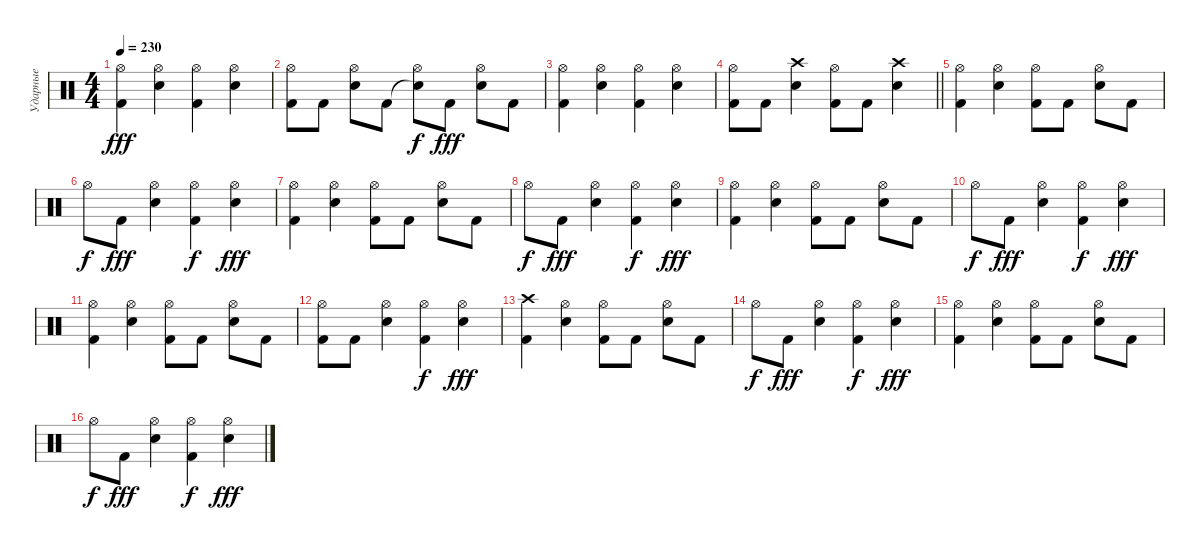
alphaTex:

\track ("Ударные" "Ударные") {instrument percussion}
\staff {score}
\articulation defaults
\ts (4 4)
\tempo 230
\clef neutral
\ks c
("Kick (hit) 2" "Hi-Hat (open)").4{dy fff} ("Snare (hit) 2" "Hi-Hat (open)").4 ("Kick (hit) 2" "Hi-Hat (open)").4 ("Snare (hit) 2" "Hi-Hat (open)").4 |
("Kick (hit) 2" "Hi-Hat (open)").8 "Kick (hit) 2".8 ("Snare (hit) 2" "Hi-Hat (open)").8 "Kick (hit) 2".8 ("Snare (hit)"{t} "Hi-Hat (open)").8{dy f} "Kick (hit) 2".8{dy fff} ("Snare (hit) 2" "Hi-Hat (open)").8 "Kick (hit) 2".8 |
("Kick (hit) 2" "Hi-Hat (open)").4 ("Snare (hit) 2" "Hi-Hat (open)").4 ("Kick (hit) 2" "Hi-Hat (open)").4 ("Snare (hit) 2" "Hi-Hat (open)").4 |
\barLineRight lightlight
("Kick (hit) 2" "Hi-Hat (open)").8 "Kick (hit) 2".8 ("Snare (hit) 2" "Crash high (hit)").4 ("Kick (hit) 2" "Hi-Hat (open)").8 "Kick (hit) 2".8 ("Snare (hit) 2" "Crash high (hit)").4 |
("Kick (hit) 2" "Hi-Hat (open)").4 ("Snare (hit) 2" "Hi-Hat (open)").4 ("Kick (hit) 2" "Hi-Hat (open)").8 "Kick (hit) 2".8 ("Snare (hit) 2" "Hi-Hat (open)").8 "Kick (hit) 2".8 |
"Hi-Hat (open)".8{dy f} "Kick (hit) 2".8{dy fff} ("Snare (hit) 2" "Hi-Hat (open)").4 ("Kick (hit) 2" "Hi-Hat (open)").4{dy f} ("Snare (hit) 2" "Hi-Hat (open)").4{dy fff} |
("Kick (hit) 2" "Hi-Hat (open)").4 ("Snare (hit) 2" "Hi-Hat (open)").4 ("Kick (hit) 2" "Hi-Hat (open)").8 "Kick (hit) 2".8 ("Snare (hit) 2" "Hi-Hat (open)").8 "Kick (hit) 2".8 |
"Hi-Hat (open)".8{dy f} "Kick (hit) 2".8{dy fff} ("Snare (hit) 2" "Hi-Hat (open)").4 ("Kick (hit) 2" "Hi-Hat (open)").4{dy f} ("Snare (hit) 2" "Hi-Hat (open)").4{dy fff} |
("Kick (hit) 2" "Hi-Hat (open)").4 ("Snare (hit) 2" "Hi-Hat (open)").4 ("Kick (hit) 2" "Hi-Hat (open)").8 "Kick (hit) 2".8 ("Snare (hit) 2" "Hi-Hat (open)").8 "Kick (hit) 2".8 |
"Hi-Hat (open)".8{dy f} "Kick (hit) 2".8{dy fff} ("Snare (hit) 2" "Hi-Hat (open)").4 ("Kick (hit) 2" "Hi-Hat (open)").4{dy f} ("Snare (hit) 2" "Hi-Hat (open)").4{dy fff} |
("Kick (hit) 2" "Hi-Hat (open)").4 ("Snare (hit) 2" "Hi-Hat (open)").4 ("Kick (hit) 2" "Hi-Hat (open)").8 "Kick (hit) 2".8 ("Snare (hit) 2" "Hi-Hat (open)").8 "Kick (hit) 2".8 |
("Kick (hit) 2" "Hi-Hat (open)").8 "Kick (hit) 2".8 ("Snare (hit) 2" "Hi-Hat (open)").4 ("Kick (hit) 2" "Hi-Hat (open)").4{dy f} ("Snare (hit) 2" "Hi-Hat (open)").4{dy fff} |
("Kick (hit) 2" "Crash high (hit)").4 ("Snare (hit) 2" "Hi-Hat (open)").4 ("Kick (hit) 2" "Hi-Hat (open)").8 "Kick (hit) 2".8 ("Snare (hit) 2" "Hi-Hat (open)").8 "Kick (hit) 2".8 |
"Hi-Hat (open)".8{dy f} "Kick (hit) 2".8{dy fff} ("Snare (hit) 2" "Hi-Hat (open)").4 ("Kick (hit) 2" "Hi-Hat (open)").4{dy f} ("Snare (hit) 2" "Hi-Hat (open)").4{dy fff} |
("Kick (hit) 2" "Hi-Hat (open)").4 ("Snare (hit) 2" "Hi-Hat (open)").4 ("Kick (hit) 2" "Hi-Hat (open)").8 "Kick (hit) 2".8 ("Snare (hit) 2" "Hi-Hat (open)").8 "Kick (hit) 2".8 |
"Hi-Hat (open)".8{dy f} "Kick (hit) 2".8{dy fff} ("Snare (hit) 2" "Hi-Hat (open)").4 ("Kick (hit) 2" "Hi-Hat (open)").4{dy f} ("Snare (hit) 2" "Hi-Hat (open)").4{dy fff}
